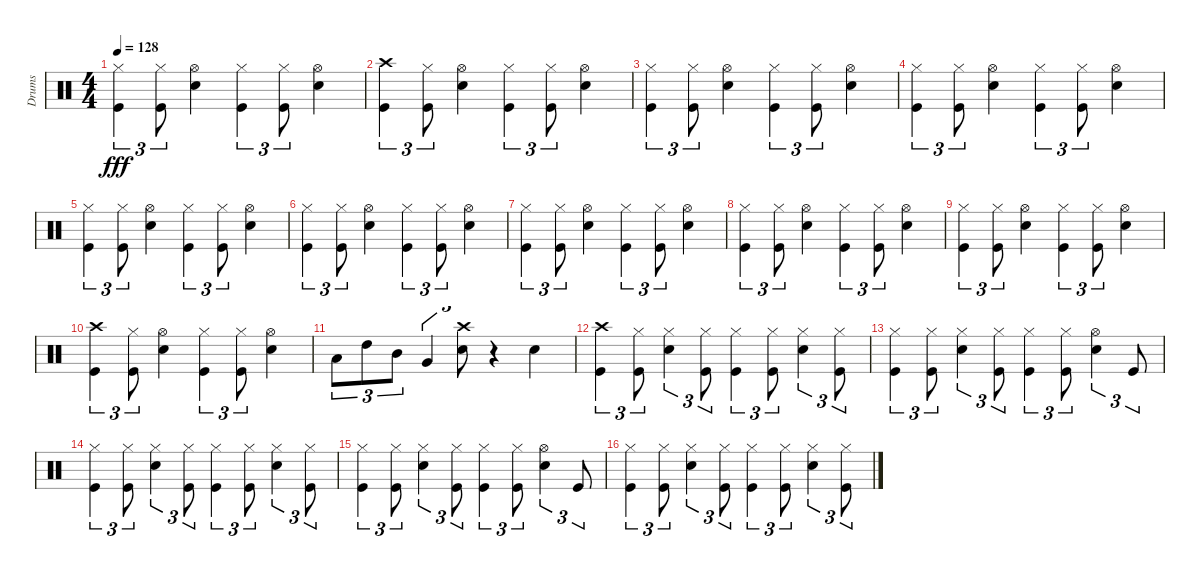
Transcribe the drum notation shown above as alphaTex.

\track ("Drums" "Drums") {instrument percussion}
\staff {score}
\articulation defaults
\ts (4 4)
\tempo 128
\clef neutral
\ks c
("Hi-Hat (closed)" "Kick (hit)").4{tu (3 2) dy fff} ("Hi-Hat (closed)" "Kick (hit)").8{tu (3 2)} ("Hi-Hat (open)" "Snare (hit) 2").4 ("Hi-Hat (closed)" "Kick (hit)").4{tu (3 2)} ("Hi-Hat (closed)" "Kick (hit)").8{tu (3 2)} ("Hi-Hat (open)" "Snare (hit) 2").4 |
("Crash high (hit)" "Kick (hit)").4{tu (3 2)} ("Hi-Hat (closed)" "Kick (hit)").8{tu (3 2)} ("Hi-Hat (open)" "Snare (hit) 2").4 ("Hi-Hat (closed)" "Kick (hit)").4{tu (3 2)} ("Hi-Hat (closed)" "Kick (hit)").8{tu (3 2)} ("Hi-Hat (open)" "Snare (hit) 2").4 |
("Hi-Hat (closed)" "Kick (hit)").4{tu (3 2)} ("Hi-Hat (closed)" "Kick (hit)").8{tu (3 2)} ("Hi-Hat (open)" "Snare (hit) 2").4 ("Hi-Hat (closed)" "Kick (hit)").4{tu (3 2)} ("Hi-Hat (closed)" "Kick (hit)").8{tu (3 2)} ("Hi-Hat (open)" "Snare (hit) 2").4 |
("Hi-Hat (closed)" "Kick (hit)").4{tu (3 2)} ("Hi-Hat (closed)" "Kick (hit)").8{tu (3 2)} ("Hi-Hat (open)" "Snare (hit) 2").4 ("Hi-Hat (closed)" "Kick (hit)").4{tu (3 2)} ("Hi-Hat (closed)" "Kick (hit)").8{tu (3 2)} ("Hi-Hat (open)" "Snare (hit) 2").4 |
("Hi-Hat (closed)" "Kick (hit)").4{tu (3 2)} ("Hi-Hat (closed)" "Kick (hit)").8{tu (3 2)} ("Hi-Hat (open)" "Snare (hit) 2").4 ("Hi-Hat (closed)" "Kick (hit)").4{tu (3 2)} ("Hi-Hat (closed)" "Kick (hit)").8{tu (3 2)} ("Hi-Hat (open)" "Snare (hit) 2").4 |
("Hi-Hat (closed)" "Kick (hit)").4{tu (3 2)} ("Hi-Hat (closed)" "Kick (hit)").8{tu (3 2)} ("Hi-Hat (open)" "Snare (hit) 2").4 ("Hi-Hat (closed)" "Kick (hit)").4{tu (3 2)} ("Hi-Hat (closed)" "Kick (hit)").8{tu (3 2)} ("Hi-Hat (open)" "Snare (hit) 2").4 |
("Hi-Hat (closed)" "Kick (hit)").4{tu (3 2)} ("Hi-Hat (closed)" "Kick (hit)").8{tu (3 2)} ("Hi-Hat (open)" "Snare (hit) 2").4 ("Hi-Hat (closed)" "Kick (hit)").4{tu (3 2)} ("Hi-Hat (closed)" "Kick (hit)").8{tu (3 2)} ("Hi-Hat (open)" "Snare (hit) 2").4 |
("Hi-Hat (closed)" "Kick (hit)").4{tu (3 2)} ("Hi-Hat (closed)" "Kick (hit)").8{tu (3 2)} ("Hi-Hat (open)" "Snare (hit) 2").4 ("Hi-Hat (closed)" "Kick (hit)").4{tu (3 2)} ("Hi-Hat (closed)" "Kick (hit)").8{tu (3 2)} ("Hi-Hat (open)" "Snare (hit) 2").4 |
("Hi-Hat (closed)" "Kick (hit)").4{tu (3 2)} ("Hi-Hat (closed)" "Kick (hit)").8{tu (3 2)} ("Hi-Hat (open)" "Snare (hit) 2").4 ("Hi-Hat (closed)" "Kick (hit)").4{tu (3 2)} ("Hi-Hat (closed)" "Kick (hit)").8{tu (3 2)} ("Hi-Hat (open)" "Snare (hit) 2").4 |
("Crash high (hit)" "Kick (hit)").4{tu (3 2)} ("Hi-Hat (closed)" "Kick (hit)").8{tu (3 2)} ("Hi-Hat (open)" "Snare (hit) 2").4 ("Hi-Hat (closed)" "Kick (hit)").4{tu (3 2)} ("Hi-Hat (closed)" "Kick (hit)").8{tu (3 2)} ("Hi-Hat (open)" "Snare (hit) 2").4 |
"Low Tom (hit)".8{tu (3 2)} "High Tom (hit)".8{tu (3 2)} "Mid Tom (hit)".8{tu (3 2)} "Very Low Tom (hit)".4{tu (3 2)} ("Crash high (hit)" "Snare (hit) 2").8{tu (3 2)} r.4 "Snare (hit) 2".4 |
("Crash high (hit)" "Kick (hit)").4{tu (3 2)} ("Hi-Hat (closed)" "Kick (hit)").8{tu (3 2)} ("Hi-Hat (closed)" "Snare (hit) 2").4{tu (3 2)} ("Hi-Hat (closed)" "Kick (hit)").8{tu (3 2)} ("Hi-Hat (closed)" "Kick (hit)").4{tu (3 2)} ("Hi-Hat (closed)" "Kick (hit)").8{tu (3 2)} ("Hi-Hat (closed)" "Snare (hit) 2").4{tu (3 2)} ("Hi-Hat (closed)" "Kick (hit)").8{tu (3 2)} |
("Hi-Hat (closed)" "Kick (hit)").4{tu (3 2)} ("Hi-Hat (closed)" "Kick (hit)").8{tu (3 2)} ("Hi-Hat (closed)" "Snare (hit) 2").4{tu (3 2)} ("Hi-Hat (closed)" "Kick (hit)").8{tu (3 2)} ("Hi-Hat (closed)" "Kick (hit)").4{tu (3 2)} ("Hi-Hat (closed)" "Kick (hit)").8{tu (3 2)} ("Hi-Hat (open)" "Snare (hit) 2").4{tu (3 2)} "Kick (hit)".8{tu (3 2)} |
("Hi-Hat (closed)" "Kick (hit)").4{tu (3 2)} ("Hi-Hat (closed)" "Kick (hit)").8{tu (3 2)} ("Hi-Hat (closed)" "Snare (hit) 2").4{tu (3 2)} ("Hi-Hat (closed)" "Kick (hit)").8{tu (3 2)} ("Hi-Hat (closed)" "Kick (hit)").4{tu (3 2)} ("Hi-Hat (closed)" "Kick (hit)").8{tu (3 2)} ("Hi-Hat (closed)" "Snare (hit) 2").4{tu (3 2)} ("Hi-Hat (closed)" "Kick (hit)").8{tu (3 2)} |
("Hi-Hat (closed)" "Kick (hit)").4{tu (3 2)} ("Hi-Hat (closed)" "Kick (hit)").8{tu (3 2)} ("Hi-Hat (closed)" "Snare (hit) 2").4{tu (3 2)} ("Hi-Hat (closed)" "Kick (hit)").8{tu (3 2)} ("Hi-Hat (closed)" "Kick (hit)").4{tu (3 2)} ("Hi-Hat (closed)" "Kick (hit)").8{tu (3 2)} ("Hi-Hat (open)" "Snare (hit) 2").4{tu (3 2)} "Kick (hit)".8{tu (3 2)} |
("Hi-Hat (closed)" "Kick (hit)").4{tu (3 2)} ("Hi-Hat (closed)" "Kick (hit)").8{tu (3 2)} ("Hi-Hat (closed)" "Snare (hit) 2").4{tu (3 2)} ("Hi-Hat (closed)" "Kick (hit)").8{tu (3 2)} ("Hi-Hat (closed)" "Kick (hit)").4{tu (3 2)} ("Hi-Hat (closed)" "Kick (hit)").8{tu (3 2)} ("Hi-Hat (closed)" "Snare (hit) 2").4{tu (3 2)} ("Hi-Hat (closed)" "Kick (hit)").8{tu (3 2)}
